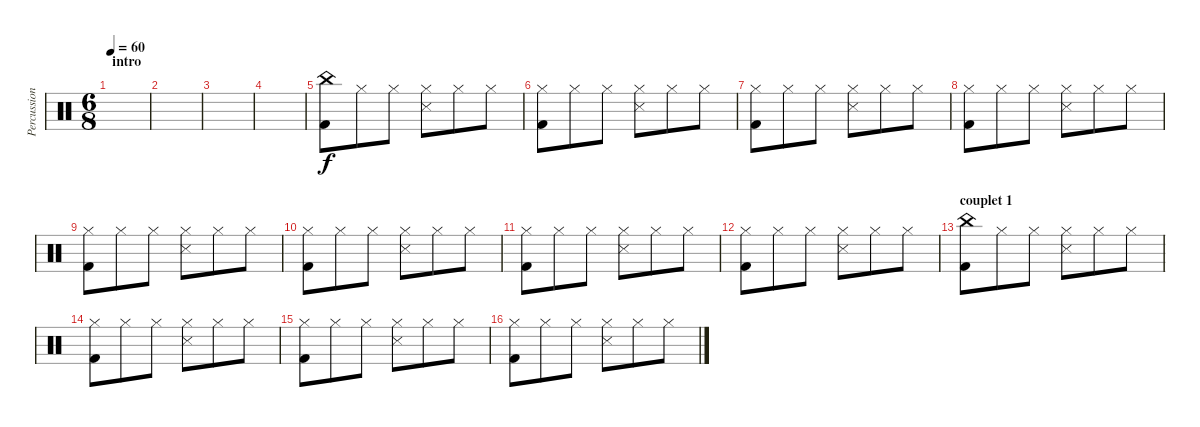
\track ("Percussions" "Percussion") {instrument percussion}
\staff {score}
\articulation defaults
\ts (6 8)
\section ("" "intro")
\tempo 60
\clef neutral
\ks c
|
|
|
|
("China (hit)" "Kick (hit) 2").8 "Hi-Hat (closed)".8 "Hi-Hat (closed)".8 ("Hi-Hat (closed)" "Snare (side stick) 3").8 "Hi-Hat (closed)".8 "Hi-Hat (closed)".8 |
("Hi-Hat (closed)" "Kick (hit) 2").8 "Hi-Hat (closed)".8 "Hi-Hat (closed)".8 ("Hi-Hat (closed)" "Snare (side stick) 3").8 "Hi-Hat (closed)".8 "Hi-Hat (closed)".8 |
("Hi-Hat (closed)" "Kick (hit) 2").8 "Hi-Hat (closed)".8 "Hi-Hat (closed)".8 ("Hi-Hat (closed)" "Snare (side stick) 3").8 "Hi-Hat (closed)".8 "Hi-Hat (closed)".8 |
("Hi-Hat (closed)" "Kick (hit) 2").8 "Hi-Hat (closed)".8 "Hi-Hat (closed)".8 ("Hi-Hat (closed)" "Snare (side stick) 3").8 "Hi-Hat (closed)".8 "Hi-Hat (closed)".8 |
("Hi-Hat (closed)" "Kick (hit) 2").8 "Hi-Hat (closed)".8 "Hi-Hat (closed)".8 ("Hi-Hat (closed)" "Snare (side stick) 3").8 "Hi-Hat (closed)".8 "Hi-Hat (closed)".8 |
("Hi-Hat (closed)" "Kick (hit) 2").8 "Hi-Hat (closed)".8 "Hi-Hat (closed)".8 ("Hi-Hat (closed)" "Snare (side stick) 3").8 "Hi-Hat (closed)".8 "Hi-Hat (closed)".8 |
("Hi-Hat (closed)" "Kick (hit) 2").8 "Hi-Hat (closed)".8 "Hi-Hat (closed)".8 ("Hi-Hat (closed)" "Snare (side stick) 3").8 "Hi-Hat (closed)".8 "Hi-Hat (closed)".8 |
("Hi-Hat (closed)" "Kick (hit) 2").8 "Hi-Hat (closed)".8 "Hi-Hat (closed)".8 ("Hi-Hat (closed)" "Snare (side stick) 3").8 "Hi-Hat (closed)".8 "Hi-Hat (closed)".8 |
\section ("" "couplet 1")
("China (hit)" "Kick (hit) 2").8 "Hi-Hat (closed)".8 "Hi-Hat (closed)".8 ("Hi-Hat (closed)" "Snare (side stick) 3").8 "Hi-Hat (closed)".8 "Hi-Hat (closed)".8 |
("Hi-Hat (closed)" "Kick (hit) 2").8 "Hi-Hat (closed)".8 "Hi-Hat (closed)".8 ("Hi-Hat (closed)" "Snare (side stick) 3").8 "Hi-Hat (closed)".8 "Hi-Hat (closed)".8 |
("Hi-Hat (closed)" "Kick (hit) 2").8 "Hi-Hat (closed)".8 "Hi-Hat (closed)".8 ("Hi-Hat (closed)" "Snare (side stick) 3").8 "Hi-Hat (closed)".8 "Hi-Hat (closed)".8 |
("Hi-Hat (closed)" "Kick (hit) 2").8 "Hi-Hat (closed)".8 "Hi-Hat (closed)".8 ("Hi-Hat (closed)" "Snare (side stick) 3").8 "Hi-Hat (closed)".8 "Hi-Hat (closed)".8
